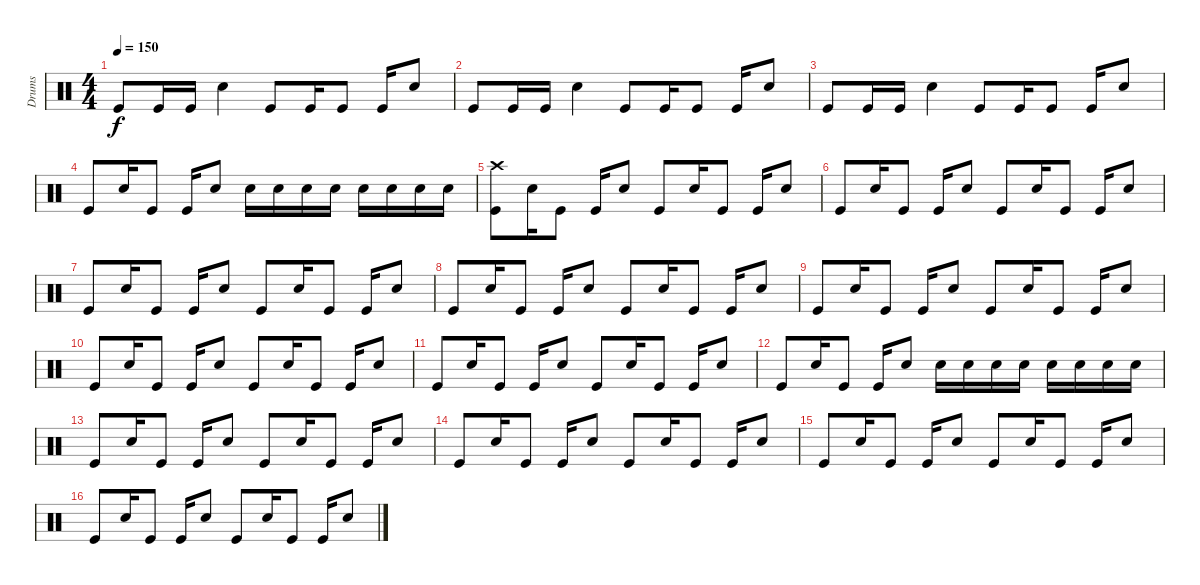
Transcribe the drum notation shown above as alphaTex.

\track ("Drums" "Drums") {instrument percussion}
\staff {score}
\articulation defaults
\ts (4 4)
\tempo 150
\clef neutral
\ks c "Kick (hit)".8{dy f} "Kick (hit)".16 "Kick (hit)".16 "Electric Snare (hit)".4 "Kick (hit)".8 "Kick (hit)".16 "Kick (hit)".8 "Kick (hit)".16 "Electric Snare (hit)".8
|
"Kick (hit)".8 "Kick (hit)".16 "Kick (hit)".16 "Electric Snare (hit)".4 "Kick (hit)".8 "Kick (hit)".16 "Kick (hit)".8 "Kick (hit)".16 "Electric Snare (hit)".8 |
"Kick (hit)".8 "Kick (hit)".16 "Kick (hit)".16 "Electric Snare (hit)".4 "Kick (hit)".8 "Kick (hit)".16 "Kick (hit)".8 "Kick (hit)".16 "Electric Snare (hit)".8 |
"Kick (hit)".8 "Electric Snare (hit)".16 "Kick (hit)".8 "Kick (hit)".16 "Electric Snare (hit)".8 "Electric Snare (hit)".16 "Electric Snare (hit)".16 "Electric Snare (hit)".16 "Electric Snare (hit)".16 "Electric Snare (hit)".16 "Electric Snare (hit)".16 "Electric Snare (hit)".16 "Electric Snare (hit)".16 |
("Kick (hit)" "Crash high (hit)").8 "Electric Snare (hit)".16 "Kick (hit)".8 "Kick (hit)".16 "Electric Snare (hit)".8 "Kick (hit)".8 "Electric Snare (hit)".16 "Kick (hit)".8 "Kick (hit)".16 "Electric Snare (hit)".8 |
"Kick (hit)".8 "Electric Snare (hit)".16 "Kick (hit)".8 "Kick (hit)".16 "Electric Snare (hit)".8 "Kick (hit)".8 "Electric Snare (hit)".16 "Kick (hit)".8 "Kick (hit)".16 "Electric Snare (hit)".8 |
"Kick (hit)".8 "Electric Snare (hit)".16 "Kick (hit)".8 "Kick (hit)".16 "Electric Snare (hit)".8 "Kick (hit)".8 "Electric Snare (hit)".16 "Kick (hit)".8 "Kick (hit)".16 "Electric Snare (hit)".8 |
"Kick (hit)".8 "Electric Snare (hit)".16 "Kick (hit)".8 "Kick (hit)".16 "Electric Snare (hit)".8 "Kick (hit)".8 "Electric Snare (hit)".16 "Kick (hit)".8 "Kick (hit)".16 "Electric Snare (hit)".8 |
"Kick (hit)".8 "Electric Snare (hit)".16 "Kick (hit)".8 "Kick (hit)".16 "Electric Snare (hit)".8 "Kick (hit)".8 "Electric Snare (hit)".16 "Kick (hit)".8 "Kick (hit)".16 "Electric Snare (hit)".8 |
"Kick (hit)".8 "Electric Snare (hit)".16 "Kick (hit)".8 "Kick (hit)".16 "Electric Snare (hit)".8 "Kick (hit)".8 "Electric Snare (hit)".16 "Kick (hit)".8 "Kick (hit)".16 "Electric Snare (hit)".8 |
"Kick (hit)".8 "Electric Snare (hit)".16 "Kick (hit)".8 "Kick (hit)".16 "Electric Snare (hit)".8 "Kick (hit)".8 "Electric Snare (hit)".16 "Kick (hit)".8 "Kick (hit)".16 "Electric Snare (hit)".8 |
"Kick (hit)".8 "Electric Snare (hit)".16 "Kick (hit)".8 "Kick (hit)".16 "Electric Snare (hit)".8 "Electric Snare (hit)".16 "Electric Snare (hit)".16 "Electric Snare (hit)".16 "Electric Snare (hit)".16 "Electric Snare (hit)".16 "Electric Snare (hit)".16 "Electric Snare (hit)".16 "Electric Snare (hit)".16 |
"Kick (hit)".8 "Electric Snare (hit)".16 "Kick (hit)".8 "Kick (hit)".16 "Electric Snare (hit)".8 "Kick (hit)".8 "Electric Snare (hit)".16 "Kick (hit)".8 "Kick (hit)".16 "Electric Snare (hit)".8 |
"Kick (hit)".8 "Electric Snare (hit)".16 "Kick (hit)".8 "Kick (hit)".16 "Electric Snare (hit)".8 "Kick (hit)".8 "Electric Snare (hit)".16 "Kick (hit)".8 "Kick (hit)".16 "Electric Snare (hit)".8 |
"Kick (hit)".8 "Electric Snare (hit)".16 "Kick (hit)".8 "Kick (hit)".16 "Electric Snare (hit)".8 "Kick (hit)".8 "Electric Snare (hit)".16 "Kick (hit)".8 "Kick (hit)".16 "Electric Snare (hit)".8 |
"Kick (hit)".8 "Electric Snare (hit)".16 "Kick (hit)".8 "Kick (hit)".16 "Electric Snare (hit)".8 "Kick (hit)".8 "Electric Snare (hit)".16 "Kick (hit)".8 "Kick (hit)".16 "Electric Snare (hit)".8
